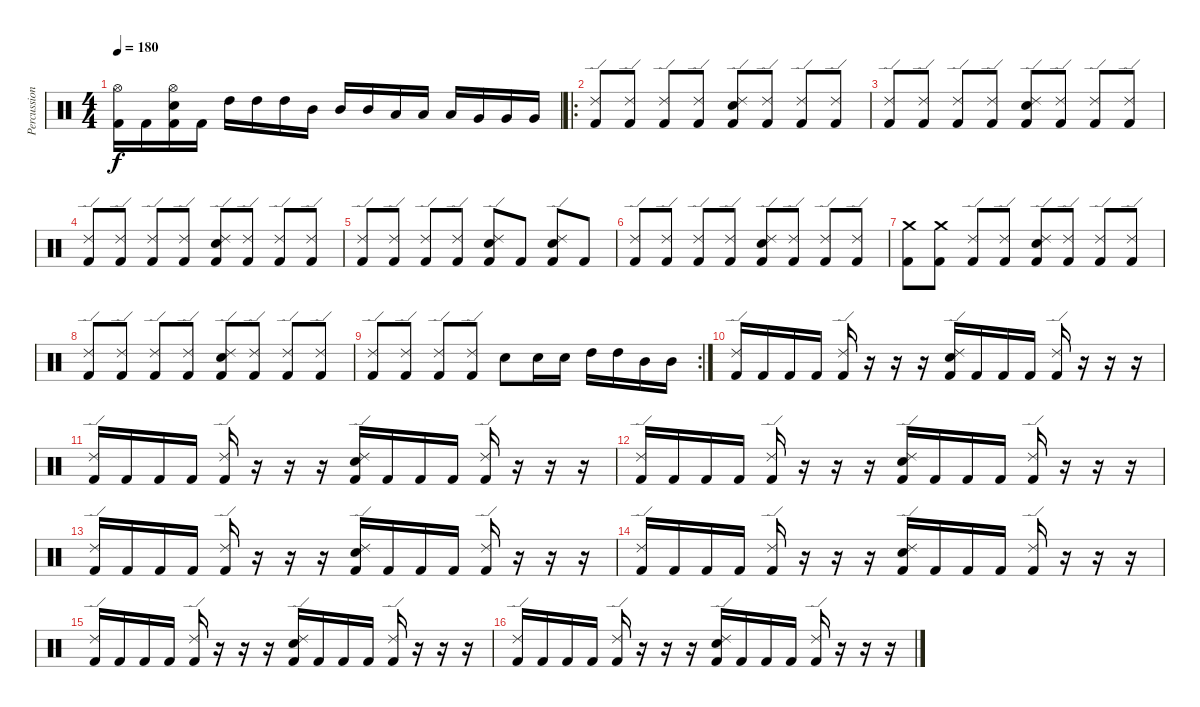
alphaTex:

\track ("Percussion" "Percussion") {instrument percussion}
\staff {score}
\articulation defaults
\ts (4 4)
\tempo 180
\clef neutral
\ks c
("Kick (hit) 2" "Hi-Hat (open)").16{dy f} "Kick (hit) 2".16 ("Kick (hit) 2" "Electric Snare (hit)" "Hi-Hat (open)").16 "Kick (hit) 2".16 "High Tom (hit)".16 "High Tom (hit)".16 "High Tom (hit)".16 "Mid Tom (hit)".16 "Mid Tom (hit)".16 "Mid Tom (hit)".16 "Low Tom (hit)".16 "Low Tom (hit)".16 "Low Tom (hit)".16 "Very Low Tom (hit)".16 "Very Low Tom (hit)".16 "Very Low Tom (hit)".16 |
\ro
("Kick (hit) 2" "Ride (edge) 2").8 ("Kick (hit) 2" "Ride (edge) 2").8 ("Kick (hit) 2" "Ride (edge) 2").8 ("Kick (hit) 2" "Ride (edge) 2").8 ("Kick (hit) 2" "Electric Snare (hit)" "Ride (edge) 2").8 ("Kick (hit) 2" "Ride (edge) 2").8 ("Kick (hit) 2" "Ride (edge) 2").8 ("Kick (hit) 2" "Ride (edge) 2").8 |
("Kick (hit) 2" "Ride (edge) 2").8 ("Kick (hit) 2" "Ride (edge) 2").8 ("Kick (hit) 2" "Ride (edge) 2").8 ("Kick (hit) 2" "Ride (edge) 2").8 ("Kick (hit) 2" "Electric Snare (hit)" "Ride (edge) 2").8 ("Kick (hit) 2" "Ride (edge) 2").8 ("Kick (hit) 2" "Ride (edge) 2").8 ("Kick (hit) 2" "Ride (edge) 2").8 |
("Kick (hit) 2" "Ride (edge) 2").8 ("Kick (hit) 2" "Ride (edge) 2").8 ("Kick (hit) 2" "Ride (edge) 2").8 ("Kick (hit) 2" "Ride (edge) 2").8 ("Kick (hit) 2" "Electric Snare (hit)" "Ride (edge) 2").8 ("Kick (hit) 2" "Ride (edge) 2").8 ("Kick (hit) 2" "Ride (edge) 2").8 ("Kick (hit) 2" "Ride (edge) 2").8 |
("Kick (hit) 2" "Ride (edge) 2").8 ("Kick (hit) 2" "Ride (edge) 2").8 ("Kick (hit) 2" "Ride (edge) 2").8 ("Kick (hit) 2" "Ride (edge) 2").8 ("Kick (hit) 2" "Electric Snare (hit)" "Ride (edge) 2").8 "Kick (hit) 2".8 ("Kick (hit) 2" "Electric Snare (hit)" "Ride (edge) 2").8 "Kick (hit) 2".8 |
("Kick (hit) 2" "Ride (edge) 2").8 ("Kick (hit) 2" "Ride (edge) 2").8 ("Kick (hit) 2" "Ride (edge) 2").8 ("Kick (hit) 2" "Ride (edge) 2").8 ("Kick (hit) 2" "Electric Snare (hit)" "Ride (edge) 2").8 ("Kick (hit) 2" "Ride (edge) 2").8 ("Kick (hit) 2" "Ride (edge) 2").8 ("Kick (hit) 2" "Ride (edge) 2").8 |
("Kick (hit) 2" "Crash medium (hit)").8 ("Kick (hit) 2" "Crash medium (hit)").8 ("Kick (hit) 2" "Ride (edge) 2").8 ("Kick (hit) 2" "Ride (edge) 2").8 ("Kick (hit) 2" "Electric Snare (hit)" "Ride (edge) 2").8 ("Kick (hit) 2" "Ride (edge) 2").8 ("Kick (hit) 2" "Ride (edge) 2").8 ("Kick (hit) 2" "Ride (edge) 2").8 |
("Kick (hit) 2" "Ride (edge) 2").8 ("Kick (hit) 2" "Ride (edge) 2").8 ("Kick (hit) 2" "Ride (edge) 2").8 ("Kick (hit) 2" "Ride (edge) 2").8 ("Kick (hit) 2" "Electric Snare (hit)" "Ride (edge) 2").8 ("Kick (hit) 2" "Ride (edge) 2").8 ("Kick (hit) 2" "Ride (edge) 2").8 ("Kick (hit) 2" "Ride (edge) 2").8 |
\rc 2
("Kick (hit) 2" "Ride (edge) 2").8 ("Kick (hit) 2" "Ride (edge) 2").8 ("Kick (hit) 2" "Ride (edge) 2").8 ("Kick (hit) 2" "Ride (edge) 2").8 "Electric Snare (hit)".8 "Electric Snare (hit)".16 "Electric Snare (hit)".16 "High Tom (hit)".16 "High Tom (hit)".16 "Mid Tom (hit)".16 "Mid Tom (hit)".16 |
("Kick (hit) 2" "Ride (edge) 2").16 "Kick (hit) 2".16 "Kick (hit) 2".16 "Kick (hit) 2".16 ("Kick (hit) 2" "Ride (edge) 2").16 r.16 r.16 r.16 ("Kick (hit) 2" "Electric Snare (hit)" "Ride (edge) 2").16 "Kick (hit) 2".16 "Kick (hit) 2".16 "Kick (hit) 2".16 ("Kick (hit) 2" "Ride (edge) 2").16 r.16 r.16 r.16 |
("Kick (hit) 2" "Ride (edge) 2").16 "Kick (hit) 2".16 "Kick (hit) 2".16 "Kick (hit) 2".16 ("Kick (hit) 2" "Ride (edge) 2").16 r.16 r.16 r.16 ("Kick (hit) 2" "Electric Snare (hit)" "Ride (edge) 2").16 "Kick (hit) 2".16 "Kick (hit) 2".16 "Kick (hit) 2".16 ("Kick (hit) 2" "Ride (edge) 2").16 r.16 r.16 r.16 |
("Kick (hit) 2" "Ride (edge) 2").16 "Kick (hit) 2".16 "Kick (hit) 2".16 "Kick (hit) 2".16 ("Kick (hit) 2" "Ride (edge) 2").16 r.16 r.16 r.16 ("Kick (hit) 2" "Electric Snare (hit)" "Ride (edge) 2").16 "Kick (hit) 2".16 "Kick (hit) 2".16 "Kick (hit) 2".16 ("Kick (hit) 2" "Ride (edge) 2").16 r.16 r.16 r.16 |
("Kick (hit) 2" "Ride (edge) 2").16 "Kick (hit) 2".16 "Kick (hit) 2".16 "Kick (hit) 2".16 ("Kick (hit) 2" "Ride (edge) 2").16 r.16 r.16 r.16 ("Kick (hit) 2" "Electric Snare (hit)" "Ride (edge) 2").16 "Kick (hit) 2".16 "Kick (hit) 2".16 "Kick (hit) 2".16 ("Kick (hit) 2" "Ride (edge) 2").16 r.16 r.16 r.16 |
("Kick (hit) 2" "Ride (edge) 2").16 "Kick (hit) 2".16 "Kick (hit) 2".16 "Kick (hit) 2".16 ("Kick (hit) 2" "Ride (edge) 2").16 r.16 r.16 r.16 ("Kick (hit) 2" "Electric Snare (hit)" "Ride (edge) 2").16 "Kick (hit) 2".16 "Kick (hit) 2".16 "Kick (hit) 2".16 ("Kick (hit) 2" "Ride (edge) 2").16 r.16 r.16 r.16 |
("Kick (hit) 2" "Ride (edge) 2").16 "Kick (hit) 2".16 "Kick (hit) 2".16 "Kick (hit) 2".16 ("Kick (hit) 2" "Ride (edge) 2").16 r.16 r.16 r.16 ("Kick (hit) 2" "Electric Snare (hit)" "Ride (edge) 2").16 "Kick (hit) 2".16 "Kick (hit) 2".16 "Kick (hit) 2".16 ("Kick (hit) 2" "Ride (edge) 2").16 r.16 r.16 r.16 |
("Kick (hit) 2" "Ride (edge) 2").16 "Kick (hit) 2".16 "Kick (hit) 2".16 "Kick (hit) 2".16 ("Kick (hit) 2" "Ride (edge) 2").16 r.16 r.16 r.16 ("Kick (hit) 2" "Electric Snare (hit)" "Ride (edge) 2").16 "Kick (hit) 2".16 "Kick (hit) 2".16 "Kick (hit) 2".16 ("Kick (hit) 2" "Ride (edge) 2").16 r.16 r.16 r.16
